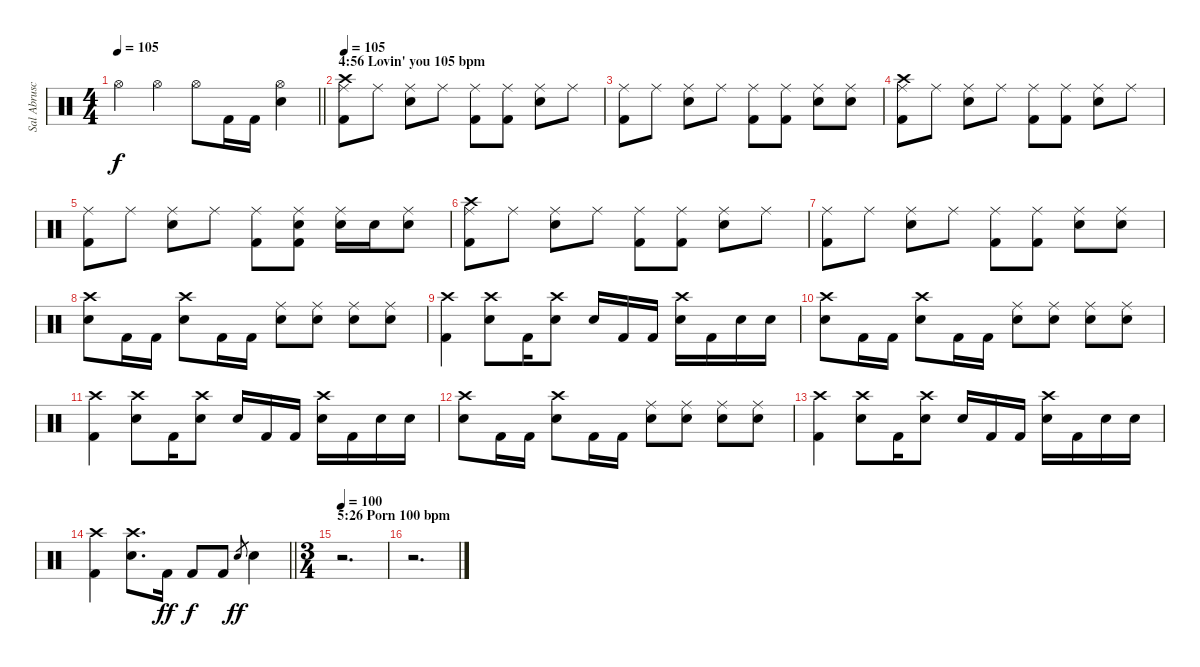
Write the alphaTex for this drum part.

\track ("Sal Abruscato (Drums)" "Sal Abrusc") {instrument percussion}
\staff {score}
\articulation defaults
\ts (4 4)
\tempo 105
\clef neutral
\barLineRight lightlight
\ks c "Hi-Hat (open)".4{dy f} "Hi-Hat (open)".4 "Hi-Hat (open)".8 "Kick (hit) 2".16 "Kick (hit) 2".16
("Electric Snare (hit)" "Hi-Hat (open)").4 |
\section ("" "4:56 Lovin' you 105 bpm")
\tempo 105
("Ride (middle)" "Crash high (hit)" "Kick (hit) 2").8 "Ride (middle)".8 ("Ride (middle)" "Electric Snare (hit)").8 "Ride (middle)".8 ("Ride (middle)" "Kick (hit) 2").8 ("Ride (middle)" "Kick (hit) 2").8 ("Ride (middle)" "Electric Snare (hit)").8 "Ride (middle)".8 |
("Ride (middle)" "Kick (hit) 2").8 "Ride (middle)".8 ("Ride (middle)" "Electric Snare (hit)").8 "Ride (middle)".8 ("Ride (middle)" "Kick (hit) 2").8 ("Ride (middle)" "Kick (hit) 2").8 ("Ride (middle)" "Electric Snare (hit)").8 ("Ride (middle)" "Electric Snare (hit)").8 |
("Ride (middle)" "Crash high (hit)" "Kick (hit) 2").8 "Ride (middle)".8 ("Ride (middle)" "Electric Snare (hit)").8 "Ride (middle)".8 ("Ride (middle)" "Kick (hit) 2").8 ("Ride (middle)" "Kick (hit) 2").8 ("Ride (middle)" "Electric Snare (hit)").8 "Ride (middle)".8 |
("Ride (middle)" "Kick (hit) 2").8 "Ride (middle)".8 ("Ride (middle)" "Electric Snare (hit)").8 "Ride (middle)".8 ("Ride (middle)" "Kick (hit) 2").8 ("Electric Snare (hit)" "Ride (middle)" "Kick (hit) 2").8 ("Electric Snare (hit)" "Ride (middle)").16 "Electric Snare (hit)".16 ("Ride (middle)" "Electric Snare (hit)").8 |
("Ride (middle)" "Crash high (hit)" "Kick (hit) 2").8 "Ride (middle)".8 ("Ride (middle)" "Electric Snare (hit)").8 "Ride (middle)".8 ("Ride (middle)" "Kick (hit) 2").8 ("Ride (middle)" "Kick (hit) 2").8 ("Ride (middle)" "Electric Snare (hit)").8 "Ride (middle)".8 |
("Ride (middle)" "Kick (hit) 2").8 "Ride (middle)".8 ("Ride (middle)" "Electric Snare (hit)").8 "Ride (middle)".8 ("Ride (middle)" "Kick (hit) 2").8 ("Ride (middle)" "Kick (hit) 2").8 ("Ride (middle)" "Electric Snare (hit)").8 ("Ride (middle)" "Electric Snare (hit)").8 |
("Crash high (hit)" "Electric Snare (hit)").8 "Kick (hit) 2".16 "Kick (hit) 2".16 ("Crash high (hit)" "Electric Snare (hit)").8 "Kick (hit) 2".16 "Kick (hit) 2".16 ("Ride (middle)" "Electric Snare (hit)").8 ("Ride (middle)" "Electric Snare (hit)").8 ("Ride (middle)" "Electric Snare (hit)").8 ("Ride (middle)" "Electric Snare (hit)").8 |
("Crash high (hit)" "Kick (hit) 2").4 ("Crash high (hit)" "Electric Snare (hit)").8 "Kick (hit) 2".16 ("Crash high (hit)" "Electric Snare (hit)").8 "Electric Snare (hit)".16 "Kick (hit) 2".16 "Kick (hit) 2".16 ("Crash high (hit)" "Electric Snare (hit)").16 "Kick (hit) 2".16 "Electric Snare (hit)".16 "Electric Snare (hit)".16 |
("Crash high (hit)" "Electric Snare (hit)").8 "Kick (hit) 2".16 "Kick (hit) 2".16 ("Crash high (hit)" "Electric Snare (hit)").8 "Kick (hit) 2".16 "Kick (hit) 2".16 ("Ride (middle)" "Electric Snare (hit)").8 ("Ride (middle)" "Electric Snare (hit)").8 ("Ride (middle)" "Electric Snare (hit)").8 ("Ride (middle)" "Electric Snare (hit)").8 |
("Crash high (hit)" "Kick (hit) 2").4 ("Crash high (hit)" "Electric Snare (hit)").8 "Kick (hit) 2".16 ("Crash high (hit)" "Electric Snare (hit)").8 "Electric Snare (hit)".16 "Kick (hit) 2".16 "Kick (hit) 2".16 ("Crash high (hit)" "Electric Snare (hit)").16 "Kick (hit) 2".16 "Electric Snare (hit)".16 "Electric Snare (hit)".16 |
("Crash high (hit)" "Electric Snare (hit)").8 "Kick (hit) 2".16 "Kick (hit) 2".16 ("Crash high (hit)" "Electric Snare (hit)").8 "Kick (hit) 2".16 "Kick (hit) 2".16 ("Ride (middle)" "Electric Snare (hit)").8 ("Ride (middle)" "Electric Snare (hit)").8 ("Ride (middle)" "Electric Snare (hit)").8 ("Ride (middle)" "Electric Snare (hit)").8 |
("Crash high (hit)" "Kick (hit) 2").4 ("Crash high (hit)" "Electric Snare (hit)").8 "Kick (hit) 2".16 ("Crash high (hit)" "Electric Snare (hit)").8 "Electric Snare (hit)".16 "Kick (hit) 2".16 "Kick (hit) 2".16 ("Crash high (hit)" "Electric Snare (hit)").16 "Kick (hit) 2".16 "Electric Snare (hit)".16 "Electric Snare (hit)".16 |
\barLineRight lightlight
("Crash high (hit)" "Kick (hit) 2").4 ("Crash high (hit)" "Electric Snare (hit)").8{d} "Kick (hit) 2".16{dy ff} "Kick (hit) 2".8{dy f} "Kick (hit) 2".8 "Electric Snare (hit)".8{gr dy ff} "Electric Snare (hit)".4 |
\ts (3 4)
\section ("" "5:26 Porn 100 bpm")
\tempo 100
r.2{d} |
r.2{d}
